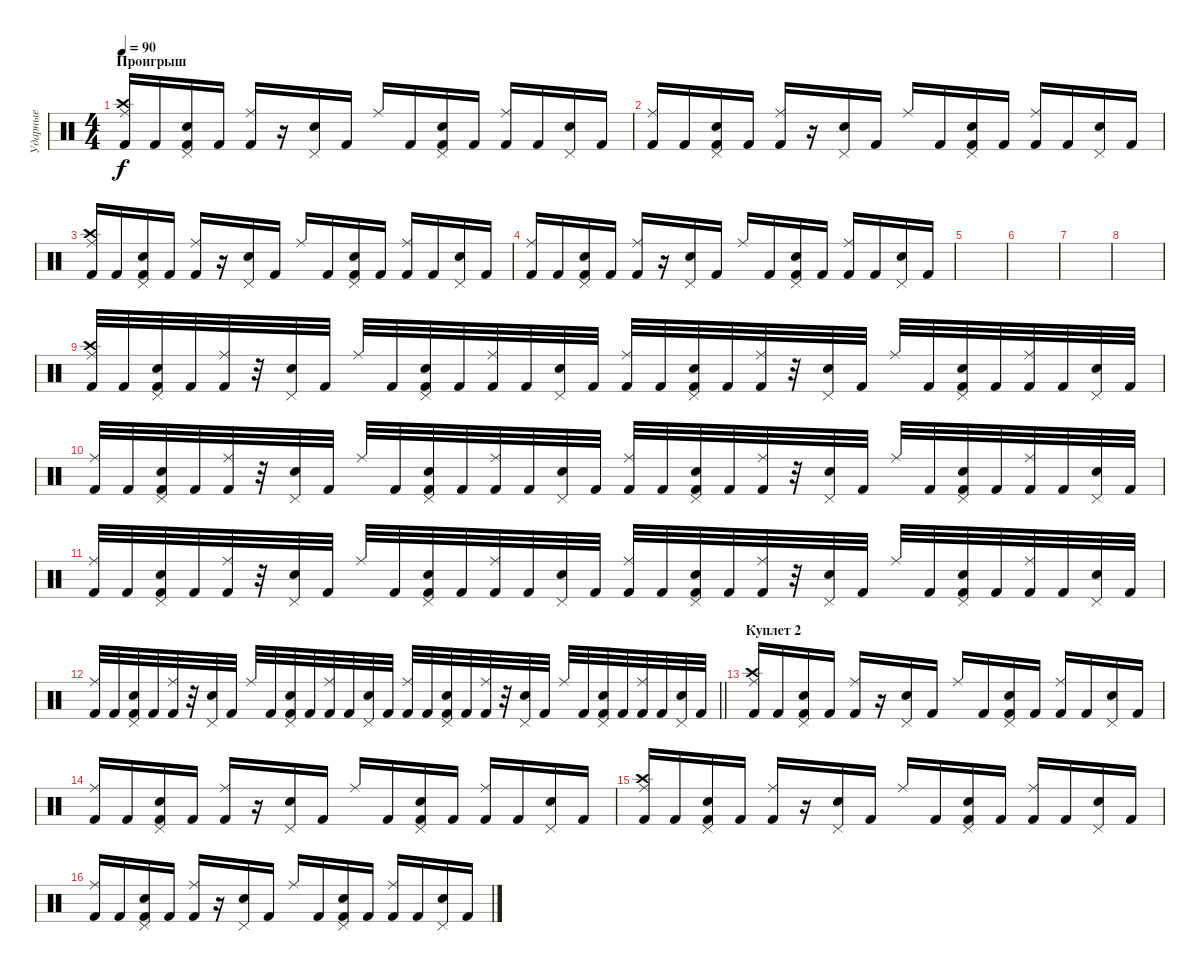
\track ("Ударные" "Ударные") {instrument percussion}
\staff {score}
\articulation defaults
\ts (4 4)
\section ("" "Проигрыш")
\tempo 90
\clef neutral
\ks c
("Kick (hit) 2" "Crash high (hit)" "Ride (middle)").16{dy f} "Kick (hit) 2".16 ("Kick (hit) 2" "Snare (hit) 2" "Pedal Hi-Hat (hit)").16 "Kick (hit) 2".16 ("Kick (hit) 2" "Ride (middle)").16 r.16 ("Snare (hit) 2" "Pedal Hi-Hat (hit)").16 "Kick (hit) 2".16 "Ride (middle)".16 "Kick (hit) 2".16 ("Kick (hit) 2" "Snare (hit) 2" "Pedal Hi-Hat (hit)").16 "Kick (hit) 2".16 ("Kick (hit) 2" "Ride (middle)").16 "Kick (hit) 2".16 ("Snare (hit) 2" "Pedal Hi-Hat (hit)").16 "Kick (hit) 2".16 |
("Kick (hit) 2" "Ride (middle)").16 "Kick (hit) 2".16 ("Kick (hit) 2" "Snare (hit) 2" "Pedal Hi-Hat (hit)").16 "Kick (hit) 2".16 ("Kick (hit) 2" "Ride (middle)").16 r.16 ("Snare (hit) 2" "Pedal Hi-Hat (hit)").16 "Kick (hit) 2".16 "Ride (middle)".16 "Kick (hit) 2".16 ("Kick (hit) 2" "Snare (hit) 2" "Pedal Hi-Hat (hit)").16 "Kick (hit) 2".16 ("Kick (hit) 2" "Ride (middle)").16 "Kick (hit) 2".16 ("Snare (hit) 2" "Pedal Hi-Hat (hit)").16 "Kick (hit) 2".16 |
("Kick (hit) 2" "Crash high (hit)" "Ride (middle)").16 "Kick (hit) 2".16 ("Kick (hit) 2" "Snare (hit) 2" "Pedal Hi-Hat (hit)").16 "Kick (hit) 2".16 ("Kick (hit) 2" "Ride (middle)").16 r.16 ("Snare (hit) 2" "Pedal Hi-Hat (hit)").16 "Kick (hit) 2".16 "Ride (middle)".16 "Kick (hit) 2".16 ("Kick (hit) 2" "Snare (hit) 2" "Pedal Hi-Hat (hit)").16 "Kick (hit) 2".16 ("Kick (hit) 2" "Ride (middle)").16 "Kick (hit) 2".16 ("Snare (hit) 2" "Pedal Hi-Hat (hit)").16 "Kick (hit) 2".16 |
("Kick (hit) 2" "Ride (middle)").16 "Kick (hit) 2".16 ("Kick (hit) 2" "Snare (hit) 2" "Pedal Hi-Hat (hit)").16 "Kick (hit) 2".16 ("Kick (hit) 2" "Ride (middle)").16 r.16 ("Snare (hit) 2" "Pedal Hi-Hat (hit)").16 "Kick (hit) 2".16 "Ride (middle)".16 "Kick (hit) 2".16 ("Kick (hit) 2" "Snare (hit) 2" "Pedal Hi-Hat (hit)").16 "Kick (hit) 2".16 ("Kick (hit) 2" "Ride (middle)").16 "Kick (hit) 2".16 ("Snare (hit) 2" "Pedal Hi-Hat (hit)").16 "Kick (hit) 2".16 |
|
|
|
|
("Kick (hit) 2" "Crash high (hit)" "Ride (middle)").32 "Kick (hit) 2".32 ("Kick (hit) 2" "Snare (hit) 2" "Pedal Hi-Hat (hit)").32 "Kick (hit) 2".32 ("Kick (hit) 2" "Ride (middle)").32 r.32 ("Snare (hit) 2" "Pedal Hi-Hat (hit)").32 "Kick (hit) 2".32 "Ride (middle)".32 "Kick (hit) 2".32 ("Kick (hit) 2" "Snare (hit) 2" "Pedal Hi-Hat (hit)").32 "Kick (hit) 2".32 ("Kick (hit) 2" "Ride (middle)").32 "Kick (hit) 2".32 ("Snare (hit) 2" "Pedal Hi-Hat (hit)").32 "Kick (hit) 2".32 ("Kick (hit) 2" "Ride (middle)").32 "Kick (hit) 2".32 ("Kick (hit) 2" "Snare (hit) 2" "Pedal Hi-Hat (hit)").32 "Kick (hit) 2".32 ("Kick (hit) 2" "Ride (middle)").32 r.32 ("Snare (hit) 2" "Pedal Hi-Hat (hit)").32 "Kick (hit) 2".32 "Ride (middle)".32 "Kick (hit) 2".32 ("Kick (hit) 2" "Snare (hit) 2" "Pedal Hi-Hat (hit)").32 "Kick (hit) 2".32 ("Kick (hit) 2" "Ride (middle)").32 "Kick (hit) 2".32 ("Snare (hit) 2" "Pedal Hi-Hat (hit)").32 "Kick (hit) 2".32 |
("Kick (hit) 2" "Ride (middle)").32 "Kick (hit) 2".32 ("Kick (hit) 2" "Snare (hit) 2" "Pedal Hi-Hat (hit)").32 "Kick (hit) 2".32 ("Kick (hit) 2" "Ride (middle)").32 r.32 ("Snare (hit) 2" "Pedal Hi-Hat (hit)").32 "Kick (hit) 2".32 "Ride (middle)".32 "Kick (hit) 2".32 ("Kick (hit) 2" "Snare (hit) 2" "Pedal Hi-Hat (hit)").32 "Kick (hit) 2".32 ("Kick (hit) 2" "Ride (middle)").32 "Kick (hit) 2".32 ("Snare (hit) 2" "Pedal Hi-Hat (hit)").32 "Kick (hit) 2".32 ("Kick (hit) 2" "Ride (middle)").32 "Kick (hit) 2".32 ("Kick (hit) 2" "Snare (hit) 2" "Pedal Hi-Hat (hit)").32 "Kick (hit) 2".32 ("Kick (hit) 2" "Ride (middle)").32 r.32 ("Snare (hit) 2" "Pedal Hi-Hat (hit)").32 "Kick (hit) 2".32 "Ride (middle)".32 "Kick (hit) 2".32 ("Kick (hit) 2" "Snare (hit) 2" "Pedal Hi-Hat (hit)").32 "Kick (hit) 2".32 ("Kick (hit) 2" "Ride (middle)").32 "Kick (hit) 2".32 ("Snare (hit) 2" "Pedal Hi-Hat (hit)").32 "Kick (hit) 2".32 |
("Kick (hit) 2" "Ride (middle)").32 "Kick (hit) 2".32 ("Kick (hit) 2" "Snare (hit) 2" "Pedal Hi-Hat (hit)").32 "Kick (hit) 2".32 ("Kick (hit) 2" "Ride (middle)").32 r.32 ("Snare (hit) 2" "Pedal Hi-Hat (hit)").32 "Kick (hit) 2".32 "Ride (middle)".32 "Kick (hit) 2".32 ("Kick (hit) 2" "Snare (hit) 2" "Pedal Hi-Hat (hit)").32 "Kick (hit) 2".32 ("Kick (hit) 2" "Ride (middle)").32 "Kick (hit) 2".32 ("Snare (hit) 2" "Pedal Hi-Hat (hit)").32 "Kick (hit) 2".32 ("Kick (hit) 2" "Ride (middle)").32 "Kick (hit) 2".32 ("Kick (hit) 2" "Snare (hit) 2" "Pedal Hi-Hat (hit)").32 "Kick (hit) 2".32 ("Kick (hit) 2" "Ride (middle)").32 r.32 ("Snare (hit) 2" "Pedal Hi-Hat (hit)").32 "Kick (hit) 2".32 "Ride (middle)".32 "Kick (hit) 2".32 ("Kick (hit) 2" "Snare (hit) 2" "Pedal Hi-Hat (hit)").32 "Kick (hit) 2".32 ("Kick (hit) 2" "Ride (middle)").32 "Kick (hit) 2".32 ("Snare (hit) 2" "Pedal Hi-Hat (hit)").32 "Kick (hit) 2".32 |
\barLineRight lightlight
("Kick (hit) 2" "Ride (middle)").32 "Kick (hit) 2".32 ("Kick (hit) 2" "Snare (hit) 2" "Pedal Hi-Hat (hit)").32 "Kick (hit) 2".32 ("Kick (hit) 2" "Ride (middle)").32 r.32 ("Snare (hit) 2" "Pedal Hi-Hat (hit)").32 "Kick (hit) 2".32 "Ride (middle)".32 "Kick (hit) 2".32 ("Kick (hit) 2" "Snare (hit) 2" "Pedal Hi-Hat (hit)").32 "Kick (hit) 2".32 ("Kick (hit) 2" "Ride (middle)").32 "Kick (hit) 2".32 ("Snare (hit) 2" "Pedal Hi-Hat (hit)").32 "Kick (hit) 2".32 ("Kick (hit) 2" "Ride (middle)").32 "Kick (hit) 2".32 ("Kick (hit) 2" "Snare (hit) 2" "Pedal Hi-Hat (hit)").32 "Kick (hit) 2".32 ("Kick (hit) 2" "Ride (middle)").32 r.32 ("Snare (hit) 2" "Pedal Hi-Hat (hit)").32 "Kick (hit) 2".32 "Ride (middle)".32 "Kick (hit) 2".32 ("Kick (hit) 2" "Snare (hit) 2" "Pedal Hi-Hat (hit)").32 "Kick (hit) 2".32 ("Kick (hit) 2" "Ride (middle)").32 "Kick (hit) 2".32 ("Snare (hit) 2" "Pedal Hi-Hat (hit)").32 "Kick (hit) 2".32 |
\section ("" "Куплет 2")
("Kick (hit) 2" "Crash high (hit)" "Ride (middle)").16 "Kick (hit) 2".16 ("Kick (hit) 2" "Snare (hit) 2" "Pedal Hi-Hat (hit)").16 "Kick (hit) 2".16 ("Kick (hit) 2" "Ride (middle)").16 r.16 ("Snare (hit) 2" "Pedal Hi-Hat (hit)").16 "Kick (hit) 2".16 "Ride (middle)".16 "Kick (hit) 2".16 ("Kick (hit) 2" "Snare (hit) 2" "Pedal Hi-Hat (hit)").16 "Kick (hit) 2".16 ("Kick (hit) 2" "Ride (middle)").16 "Kick (hit) 2".16 ("Snare (hit) 2" "Pedal Hi-Hat (hit)").16 "Kick (hit) 2".16 |
("Kick (hit) 2" "Ride (middle)").16 "Kick (hit) 2".16 ("Kick (hit) 2" "Snare (hit) 2" "Pedal Hi-Hat (hit)").16 "Kick (hit) 2".16 ("Kick (hit) 2" "Ride (middle)").16 r.16 ("Snare (hit) 2" "Pedal Hi-Hat (hit)").16 "Kick (hit) 2".16 "Ride (middle)".16 "Kick (hit) 2".16 ("Kick (hit) 2" "Snare (hit) 2" "Pedal Hi-Hat (hit)").16 "Kick (hit) 2".16 ("Kick (hit) 2" "Ride (middle)").16 "Kick (hit) 2".16 ("Snare (hit) 2" "Pedal Hi-Hat (hit)").16 "Kick (hit) 2".16 |
("Kick (hit) 2" "Crash high (hit)" "Ride (middle)").16 "Kick (hit) 2".16 ("Kick (hit) 2" "Snare (hit) 2" "Pedal Hi-Hat (hit)").16 "Kick (hit) 2".16 ("Kick (hit) 2" "Ride (middle)").16 r.16 ("Snare (hit) 2" "Pedal Hi-Hat (hit)").16 "Kick (hit) 2".16 "Ride (middle)".16 "Kick (hit) 2".16 ("Kick (hit) 2" "Snare (hit) 2" "Pedal Hi-Hat (hit)").16 "Kick (hit) 2".16 ("Kick (hit) 2" "Ride (middle)").16 "Kick (hit) 2".16 ("Snare (hit) 2" "Pedal Hi-Hat (hit)").16 "Kick (hit) 2".16 |
("Kick (hit) 2" "Ride (middle)").16 "Kick (hit) 2".16 ("Kick (hit) 2" "Snare (hit) 2" "Pedal Hi-Hat (hit)").16 "Kick (hit) 2".16 ("Kick (hit) 2" "Ride (middle)").16 r.16 ("Snare (hit) 2" "Pedal Hi-Hat (hit)").16 "Kick (hit) 2".16 "Ride (middle)".16 "Kick (hit) 2".16 ("Kick (hit) 2" "Snare (hit) 2" "Pedal Hi-Hat (hit)").16 "Kick (hit) 2".16 ("Kick (hit) 2" "Ride (middle)").16 "Kick (hit) 2".16 ("Snare (hit) 2" "Pedal Hi-Hat (hit)").16 "Kick (hit) 2".16
